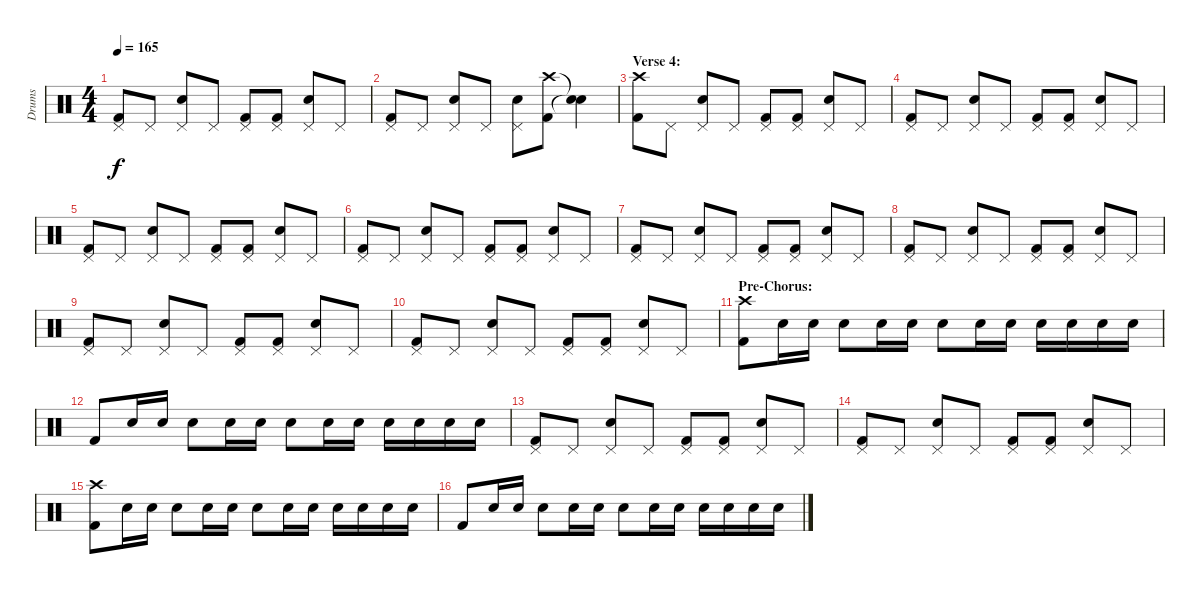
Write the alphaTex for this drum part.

\track ("Drums" "Drums") {instrument percussion}
\staff {score}
\articulation defaults
\ts (4 4)
\tempo 165
\clef neutral
\ks c
("Pedal Hi-Hat (hit)" "Kick (hit) 2").8{dy f} "Pedal Hi-Hat (hit)".8 ("Pedal Hi-Hat (hit)" "Electric Snare (hit)").8 "Pedal Hi-Hat (hit)".8 ("Pedal Hi-Hat (hit)" "Kick (hit) 2").8 ("Pedal Hi-Hat (hit)" "Kick (hit) 2").8 ("Pedal Hi-Hat (hit)" "Electric Snare (hit)").8 "Pedal Hi-Hat (hit)".8 |
("Pedal Hi-Hat (hit)" "Kick (hit) 2").8 "Pedal Hi-Hat (hit)".8 ("Pedal Hi-Hat (hit)" "Electric Snare (hit)").8 "Pedal Hi-Hat (hit)".8 ("Pedal Hi-Hat (hit)" "Electric Snare (hit)").8 ("Crash high (hit)" "Kick (hit) 2").8 ("Snare (hit)"{t} "Snare (hit)"{t}).4 |
\section ("" "Verse 4:")
("Crash high (hit)" "Kick (hit) 2").8 "Pedal Hi-Hat (hit)".8 ("Pedal Hi-Hat (hit)" "Electric Snare (hit)").8 "Pedal Hi-Hat (hit)".8 ("Pedal Hi-Hat (hit)" "Kick (hit) 2").8 ("Pedal Hi-Hat (hit)" "Kick (hit) 2").8 ("Pedal Hi-Hat (hit)" "Electric Snare (hit)").8 "Pedal Hi-Hat (hit)".8 |
("Pedal Hi-Hat (hit)" "Kick (hit) 2").8 "Pedal Hi-Hat (hit)".8 ("Pedal Hi-Hat (hit)" "Electric Snare (hit)").8 "Pedal Hi-Hat (hit)".8 ("Pedal Hi-Hat (hit)" "Kick (hit) 2").8 ("Pedal Hi-Hat (hit)" "Kick (hit) 2").8 ("Pedal Hi-Hat (hit)" "Electric Snare (hit)").8 "Pedal Hi-Hat (hit)".8 |
("Pedal Hi-Hat (hit)" "Kick (hit) 2").8 "Pedal Hi-Hat (hit)".8 ("Pedal Hi-Hat (hit)" "Electric Snare (hit)").8 "Pedal Hi-Hat (hit)".8 ("Pedal Hi-Hat (hit)" "Kick (hit) 2").8 ("Pedal Hi-Hat (hit)" "Kick (hit) 2").8 ("Pedal Hi-Hat (hit)" "Electric Snare (hit)").8 "Pedal Hi-Hat (hit)".8 |
("Pedal Hi-Hat (hit)" "Kick (hit) 2").8 "Pedal Hi-Hat (hit)".8 ("Pedal Hi-Hat (hit)" "Electric Snare (hit)").8 "Pedal Hi-Hat (hit)".8 ("Pedal Hi-Hat (hit)" "Kick (hit) 2").8 ("Pedal Hi-Hat (hit)" "Kick (hit) 2").8 ("Pedal Hi-Hat (hit)" "Electric Snare (hit)").8 "Pedal Hi-Hat (hit)".8 |
("Pedal Hi-Hat (hit)" "Kick (hit) 2").8 "Pedal Hi-Hat (hit)".8 ("Pedal Hi-Hat (hit)" "Electric Snare (hit)").8 "Pedal Hi-Hat (hit)".8 ("Pedal Hi-Hat (hit)" "Kick (hit) 2").8 ("Pedal Hi-Hat (hit)" "Kick (hit) 2").8 ("Pedal Hi-Hat (hit)" "Electric Snare (hit)").8 "Pedal Hi-Hat (hit)".8 |
("Pedal Hi-Hat (hit)" "Kick (hit) 2").8 "Pedal Hi-Hat (hit)".8 ("Pedal Hi-Hat (hit)" "Electric Snare (hit)").8 "Pedal Hi-Hat (hit)".8 ("Pedal Hi-Hat (hit)" "Kick (hit) 2").8 ("Pedal Hi-Hat (hit)" "Kick (hit) 2").8 ("Pedal Hi-Hat (hit)" "Electric Snare (hit)").8 "Pedal Hi-Hat (hit)".8 |
("Pedal Hi-Hat (hit)" "Kick (hit) 2").8 "Pedal Hi-Hat (hit)".8 ("Pedal Hi-Hat (hit)" "Electric Snare (hit)").8 "Pedal Hi-Hat (hit)".8 ("Pedal Hi-Hat (hit)" "Kick (hit) 2").8 ("Pedal Hi-Hat (hit)" "Kick (hit) 2").8 ("Pedal Hi-Hat (hit)" "Electric Snare (hit)").8 "Pedal Hi-Hat (hit)".8 |
("Pedal Hi-Hat (hit)" "Kick (hit) 2").8 "Pedal Hi-Hat (hit)".8 ("Pedal Hi-Hat (hit)" "Electric Snare (hit)").8 "Pedal Hi-Hat (hit)".8 ("Pedal Hi-Hat (hit)" "Kick (hit) 2").8 ("Pedal Hi-Hat (hit)" "Kick (hit) 2").8 ("Pedal Hi-Hat (hit)" "Electric Snare (hit)").8 "Pedal Hi-Hat (hit)".8 |
\section ("" "Pre-Chorus:")
("Crash high (hit)" "Kick (hit) 2").8 "Electric Snare (hit)".16 "Electric Snare (hit)".16 "Electric Snare (hit)".8 "Electric Snare (hit)".16 "Electric Snare (hit)".16 "Electric Snare (hit)".8 "Electric Snare (hit)".16 "Electric Snare (hit)".16 "Electric Snare (hit)".16 "Electric Snare (hit)".16 "Electric Snare (hit)".16 "Electric Snare (hit)".16 |
"Kick (hit) 2".8 "Electric Snare (hit)".16 "Electric Snare (hit)".16 "Electric Snare (hit)".8 "Electric Snare (hit)".16 "Electric Snare (hit)".16 "Electric Snare (hit)".8 "Electric Snare (hit)".16 "Electric Snare (hit)".16 "Electric Snare (hit)".16 "Electric Snare (hit)".16 "Electric Snare (hit)".16 "Electric Snare (hit)".16 |
("Pedal Hi-Hat (hit)" "Kick (hit) 2").8 "Pedal Hi-Hat (hit)".8 ("Pedal Hi-Hat (hit)" "Electric Snare (hit)").8 "Pedal Hi-Hat (hit)".8 ("Pedal Hi-Hat (hit)" "Kick (hit) 2").8 ("Pedal Hi-Hat (hit)" "Kick (hit) 2").8 ("Pedal Hi-Hat (hit)" "Electric Snare (hit)").8 "Pedal Hi-Hat (hit)".8 |
("Pedal Hi-Hat (hit)" "Kick (hit) 2").8 "Pedal Hi-Hat (hit)".8 ("Pedal Hi-Hat (hit)" "Electric Snare (hit)").8 "Pedal Hi-Hat (hit)".8 ("Pedal Hi-Hat (hit)" "Kick (hit) 2").8 ("Pedal Hi-Hat (hit)" "Kick (hit) 2").8 ("Pedal Hi-Hat (hit)" "Electric Snare (hit)").8 "Pedal Hi-Hat (hit)".8 |
("Crash high (hit)" "Kick (hit) 2").8 "Electric Snare (hit)".16 "Electric Snare (hit)".16 "Electric Snare (hit)".8 "Electric Snare (hit)".16 "Electric Snare (hit)".16 "Electric Snare (hit)".8 "Electric Snare (hit)".16 "Electric Snare (hit)".16 "Electric Snare (hit)".16 "Electric Snare (hit)".16 "Electric Snare (hit)".16 "Electric Snare (hit)".16 |
"Kick (hit) 2".8 "Electric Snare (hit)".16 "Electric Snare (hit)".16 "Electric Snare (hit)".8 "Electric Snare (hit)".16 "Electric Snare (hit)".16 "Electric Snare (hit)".8 "Electric Snare (hit)".16 "Electric Snare (hit)".16 "Electric Snare (hit)".16 "Electric Snare (hit)".16 "Electric Snare (hit)".16 "Electric Snare (hit)".16
